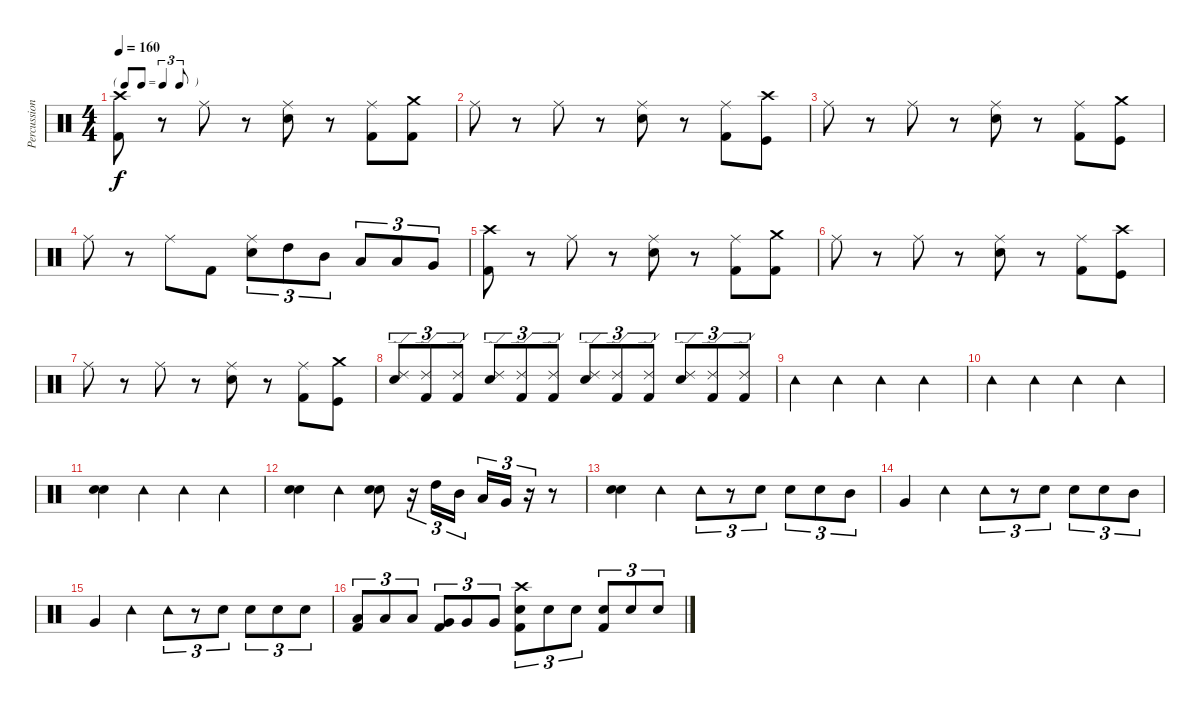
\track ("Percussion" "Percussion") {instrument percussion}
\staff {score}
\articulation defaults
\ts (4 4)
\tf triplet8th
\tempo 160
\clef neutral
\ks c
("Crash high (hit)" "Kick (hit) 2").8{dy f} r.8 "Ride (middle)".8 r.8 ("Ride (middle)" "Electric Snare (hit)").8 r.8 ("Ride (middle)" "Kick (hit) 2").8 ("Crash medium (hit)" "Kick (hit) 2").8 |
"Ride (middle)".8 r.8 "Ride (middle)".8 r.8 ("Ride (middle)" "Electric Snare (hit)").8 r.8 ("Ride (middle)" "Kick (hit) 2").8 ("Crash high (hit)" "Kick (hit)").8 |
"Ride (middle)".8 r.8 "Ride (middle)".8 r.8 ("Ride (middle)" "Electric Snare (hit)").8 r.8 ("Ride (middle)" "Kick (hit) 2").8 ("Crash medium (hit)" "Kick (hit)").8 |
"Ride (middle)".8 r.8 "Ride (middle)".8 "Kick (hit) 2".8 ("Ride (middle)" "Electric Snare (hit)").8{tu (3 2)} "High Tom (hit)".8{tu (3 2)} "Mid Tom (hit)".8{tu (3 2)} "Low Tom (hit)".8{tu (3 2)} "Low Tom (hit)".8{tu (3 2)} "Very Low Tom (hit)".8{tu (3 2)} |
("Crash high (hit)" "Kick (hit) 2").8 r.8 "Ride (middle)".8 r.8 ("Ride (middle)" "Electric Snare (hit)").8 r.8 ("Ride (middle)" "Kick (hit) 2").8 ("Crash medium (hit)" "Kick (hit) 2").8 |
"Ride (middle)".8 r.8 "Ride (middle)".8 r.8 ("Ride (middle)" "Electric Snare (hit)").8 r.8 ("Ride (middle)" "Kick (hit) 2").8 ("Crash high (hit)" "Kick (hit)").8 |
"Ride (middle)".8 r.8 "Ride (middle)".8 r.8 ("Ride (middle)" "Electric Snare (hit)").8 r.8 ("Ride (middle)" "Kick (hit) 2").8 ("Crash medium (hit)" "Kick (hit)").8 |
("Ride (edge) 2" "Electric Snare (hit)").8{tu (3 2)} ("Ride (edge) 2" "Kick (hit) 2").8{tu (3 2)} ("Ride (edge) 2" "Kick (hit) 2").8{tu (3 2)} ("Ride (edge) 2" "Electric Snare (hit)").8{tu (3 2)} ("Ride (edge) 2" "Kick (hit) 2").8{tu (3 2)} ("Ride (edge) 2" "Kick (hit) 2").8{tu (3 2)} ("Ride (edge) 2" "Electric Snare (hit)").8{tu (3 2)} ("Ride (edge) 2" "Kick (hit) 2").8{tu (3 2)} ("Ride (edge) 2" "Kick (hit) 2").8{tu (3 2)} ("Ride (edge) 2" "Electric Snare (hit)").8{tu (3 2)} ("Ride (edge) 2" "Kick (hit) 2").8{tu (3 2)} ("Ride (edge) 2" "Kick (hit) 2").8{tu (3 2)} |
"Tambourine (hit)".4 "Tambourine (hit)".4 "Tambourine (hit)".4 "Tambourine (hit)".4 |
"Tambourine (hit)".4 "Tambourine (hit)".4 "Tambourine (hit)".4 "Tambourine (hit)".4 |
("Electric Snare (hit)" "Electric Snare (hit)").4 "Tambourine (hit)".4 "Tambourine (hit)".4 "Tambourine (hit)".4 |
("Electric Snare (hit)" "Electric Snare (hit)").4 "Tambourine (hit)".4 ("Electric Snare (hit)" "Electric Snare (hit)").8 r.16{tu (3 2)} "High Tom (hit)".16{tu (3 2)} "Mid Tom (hit)".16{tu (3 2)} "Low Tom (hit)".16{tu (3 2)} "Very Low Tom (hit)".16{tu (3 2)} r.16{tu (3 2)} r.8 |
("Electric Snare (hit)" "Electric Snare (hit)").4 "Tambourine (hit)".4 "Tambourine (hit)".8{tu (3 2)} r.8{tu (3 2)} "Electric Snare (hit)".8{tu (3 2)} "Electric Snare (hit)".8{tu (3 2)} "Electric Snare (hit)".8{tu (3 2)} "Mid Tom (hit)".8{tu (3 2)} |
"Very Low Tom (hit)".4 "Tambourine (hit)".4 "Tambourine (hit)".8{tu (3 2)} r.8{tu (3 2)} "Electric Snare (hit)".8{tu (3 2)} "Electric Snare (hit)".8{tu (3 2)} "Electric Snare (hit)".8{tu (3 2)} "Mid Tom (hit)".8{tu (3 2)} |
"Very Low Tom (hit)".4 "Tambourine (hit)".4 "Tambourine (hit)".8{tu (3 2)} r.8{tu (3 2)} "Electric Snare (hit)".8{tu (3 2)} "Electric Snare (hit)".8{tu (3 2)} "Electric Snare (hit)".8{tu (3 2)} "Electric Snare (hit)".8{tu (3 2)} |
("Low Tom (hit)" "Kick (hit) 2").8{tu (3 2)} "Low Tom (hit)".8{tu (3 2)} "Low Tom (hit)".8{tu (3 2)} ("Very Low Tom (hit)" "Kick (hit) 2").8{tu (3 2)} "Very Low Tom (hit)".8{tu (3 2)} "Very Low Tom (hit)".8{tu (3 2)} ("Crash high (hit)" "Electric Snare (hit)" "Kick (hit) 2").8{tu (3 2)} "Electric Snare (hit)".8{tu (3 2)} "Electric Snare (hit)".8{tu (3 2)} ("Electric Snare (hit)" "Kick (hit) 2").8{tu (3 2)} "Electric Snare (hit)".8{tu (3 2)} "Electric Snare (hit)".8{tu (3 2)}
